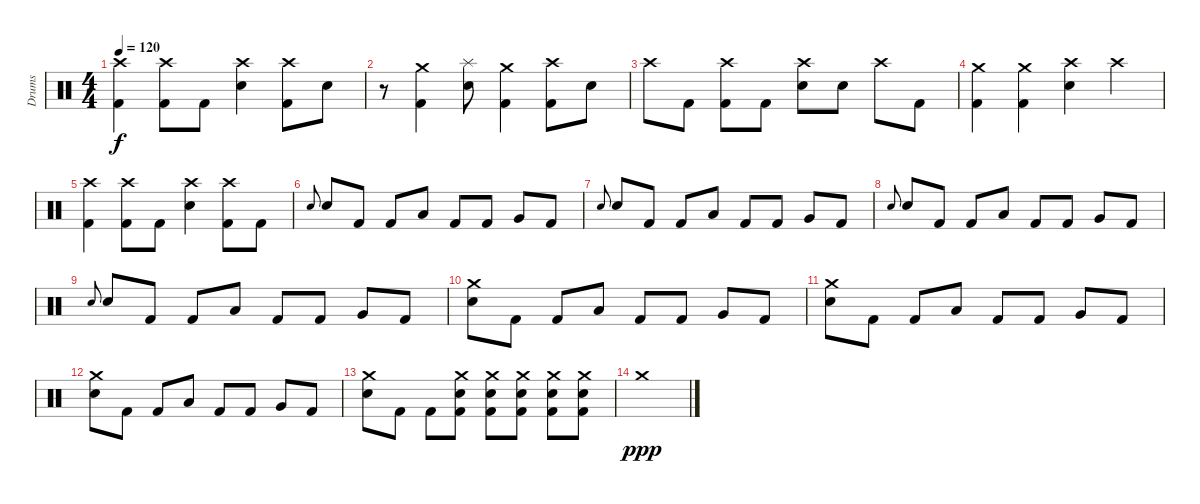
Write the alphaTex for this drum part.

\track ("Drums" "Drums") {instrument percussion}
\staff {score}
\articulation defaults
\ts (4 4)
\tempo 120
\clef neutral
\ks c
("Crash high (hit)" "Kick (hit) 2").4{dy f} ("Crash high (hit)" "Kick (hit) 2").8 "Kick (hit) 2".8 ("Crash high (hit)" "Electric Snare (hit)").4 ("Crash high (hit)" "Kick (hit) 2").8 "Electric Snare (hit)".8 |
r.8 ("Crash medium (hit)" "Kick (hit) 2").4 ("Splash (hit)" "Electric Snare (hit)").8 ("Crash medium (hit)" "Kick (hit) 2").4 ("Kick (hit) 2" "Crash high (hit)").8 "Electric Snare (hit)".8 |
"Crash high (hit)".8 "Kick (hit) 2".8 ("Kick (hit) 2" "Crash high (hit)").8 "Kick (hit) 2".8 ("Electric Snare (hit)" "Crash high (hit)").8 "Electric Snare (hit)".8 "Crash high (hit)".8 "Kick (hit) 2".8 |
("Crash medium (hit)" "Kick (hit) 2").4 ("Crash medium (hit)" "Kick (hit) 2").4 ("Crash high (hit)" "Electric Snare (hit)").4 "Crash high (hit)".4 |
("Crash high (hit)" "Kick (hit) 2").4 ("Crash high (hit)" "Kick (hit) 2").8 "Kick (hit) 2".8 ("Crash high (hit)" "Electric Snare (hit)").4 ("Kick (hit) 2" "Crash high (hit)").8 "Kick (hit) 2".8 |
"Electric Snare (hit)".8{gr onbeat} "Electric Snare (hit)".8 "Kick (hit) 2".8 "Kick (hit) 2".8 "Low Tom (hit)".8 "Kick (hit) 2".8 "Kick (hit) 2".8 "Very Low Tom (hit)".8 "Kick (hit) 2".8 |
"Electric Snare (hit)".8{gr onbeat} "Electric Snare (hit)".8 "Kick (hit) 2".8 "Kick (hit) 2".8 "Low Tom (hit)".8 "Kick (hit) 2".8 "Kick (hit) 2".8 "Very Low Tom (hit)".8 "Kick (hit) 2".8 |
"Electric Snare (hit)".8{gr onbeat} "Electric Snare (hit)".8 "Kick (hit) 2".8 "Kick (hit) 2".8 "Low Tom (hit)".8 "Kick (hit) 2".8 "Kick (hit) 2".8 "Very Low Tom (hit)".8 "Kick (hit) 2".8 |
"Electric Snare (hit)".8{gr onbeat} "Electric Snare (hit)".8 "Kick (hit) 2".8 "Kick (hit) 2".8 "Low Tom (hit)".8 "Kick (hit) 2".8 "Kick (hit) 2".8 "Very Low Tom (hit)".8 "Kick (hit) 2".8 |
("Crash medium (hit)" "Electric Snare (hit)").8 "Kick (hit) 2".8 "Kick (hit) 2".8 "Low Tom (hit)".8 "Kick (hit) 2".8 "Kick (hit) 2".8 "Very Low Tom (hit)".8 "Kick (hit) 2".8 |
("Crash medium (hit)" "Electric Snare (hit)").8 "Kick (hit) 2".8 "Kick (hit) 2".8 "Low Tom (hit)".8 "Kick (hit) 2".8 "Kick (hit) 2".8 "Very Low Tom (hit)".8 "Kick (hit) 2".8 |
("Crash medium (hit)" "Electric Snare (hit)").8 "Kick (hit) 2".8 "Kick (hit) 2".8 "Low Tom (hit)".8 "Kick (hit) 2".8 "Kick (hit) 2".8 "Very Low Tom (hit)".8 "Kick (hit) 2".8 |
("Crash medium (hit)" "Electric Snare (hit)").8 "Kick (hit) 2".8 "Kick (hit) 2".8 ("Electric Snare (hit)" "Kick (hit) 2" "Crash medium (hit)").8 ("Electric Snare (hit)" "Kick (hit) 2" "Crash medium (hit)").8 ("Electric Snare (hit)" "Kick (hit) 2" "Crash medium (hit)").8 ("Electric Snare (hit)" "Kick (hit) 2" "Crash medium (hit)").8 ("Electric Snare (hit)" "Kick (hit) 2" "Crash medium (hit)").8 |
"Crash medium (hit)".1{dy ppp}
